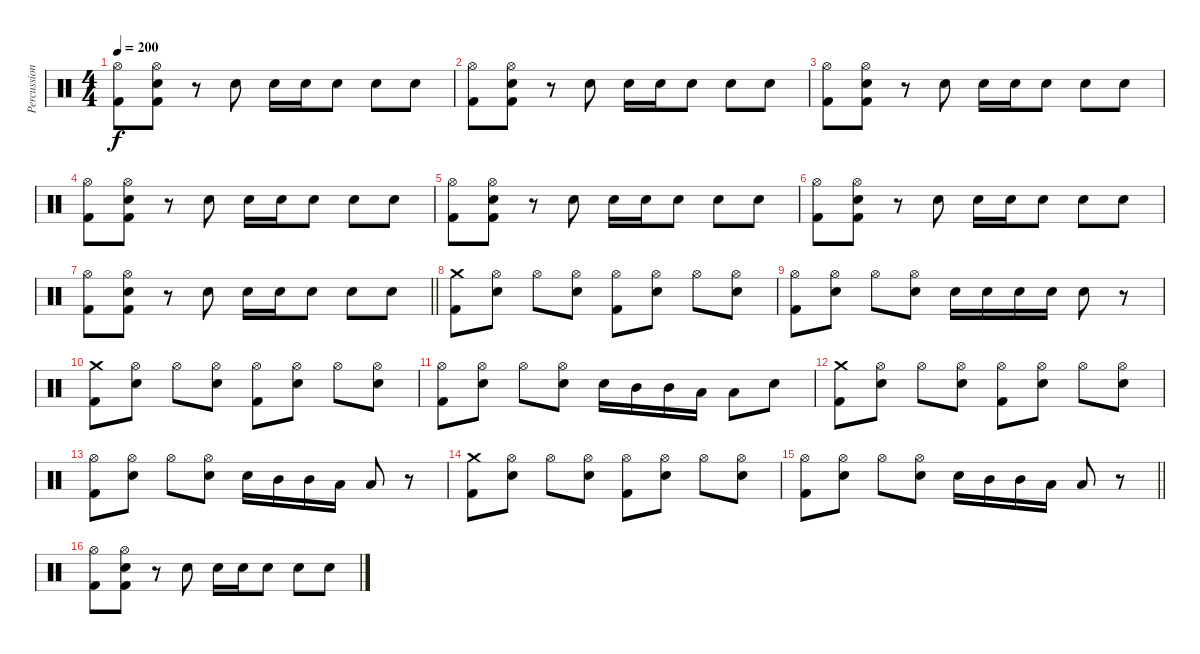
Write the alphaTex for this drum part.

\track ("Percussion" "Percussion") {instrument percussion}
\staff {score}
\articulation defaults
\ts (4 4)
\tempo 200
\clef neutral
\ks c
("Hi-Hat (open)" "Kick (hit) 2").8{dy f} ("Hi-Hat (open)" "Electric Snare (hit)" "Kick (hit) 2").8 r.8 "Electric Snare (hit)".8 "Electric Snare (hit)".16 "Electric Snare (hit)".16 "Electric Snare (hit)".8 "Electric Snare (hit)".8 "Electric Snare (hit)".8 |
("Hi-Hat (open)" "Kick (hit) 2").8 ("Hi-Hat (open)" "Electric Snare (hit)" "Kick (hit) 2").8 r.8 "Electric Snare (hit)".8 "Electric Snare (hit)".16 "Electric Snare (hit)".16 "Electric Snare (hit)".8 "Electric Snare (hit)".8 "Electric Snare (hit)".8 |
("Hi-Hat (open)" "Kick (hit) 2").8 ("Hi-Hat (open)" "Electric Snare (hit)" "Kick (hit) 2").8 r.8 "Electric Snare (hit)".8 "Electric Snare (hit)".16 "Electric Snare (hit)".16 "Electric Snare (hit)".8 "Electric Snare (hit)".8 "Electric Snare (hit)".8 |
("Hi-Hat (open)" "Kick (hit) 2").8 ("Hi-Hat (open)" "Electric Snare (hit)" "Kick (hit) 2").8 r.8 "Electric Snare (hit)".8 "Electric Snare (hit)".16 "Electric Snare (hit)".16 "Electric Snare (hit)".8 "Electric Snare (hit)".8 "Electric Snare (hit)".8 |
("Hi-Hat (open)" "Kick (hit) 2").8 ("Hi-Hat (open)" "Electric Snare (hit)" "Kick (hit) 2").8 r.8 "Electric Snare (hit)".8 "Electric Snare (hit)".16 "Electric Snare (hit)".16 "Electric Snare (hit)".8 "Electric Snare (hit)".8 "Electric Snare (hit)".8 |
("Hi-Hat (open)" "Kick (hit) 2").8 ("Hi-Hat (open)" "Electric Snare (hit)" "Kick (hit) 2").8 r.8 "Electric Snare (hit)".8 "Electric Snare (hit)".16 "Electric Snare (hit)".16 "Electric Snare (hit)".8 "Electric Snare (hit)".8 "Electric Snare (hit)".8 |
\barLineRight lightlight
("Hi-Hat (open)" "Kick (hit) 2").8 ("Hi-Hat (open)" "Electric Snare (hit)" "Kick (hit) 2").8 r.8 "Electric Snare (hit)".8 "Electric Snare (hit)".16 "Electric Snare (hit)".16 "Electric Snare (hit)".8 "Electric Snare (hit)".8 "Electric Snare (hit)".8 |
("Crash medium (hit)" "Kick (hit) 2").8 ("Hi-Hat (open)" "Electric Snare (hit)").8 "Hi-Hat (open)".8 ("Hi-Hat (open)" "Electric Snare (hit)").8 ("Hi-Hat (open)" "Kick (hit) 2").8 ("Hi-Hat (open)" "Electric Snare (hit)").8 "Hi-Hat (open)".8 ("Hi-Hat (open)" "Electric Snare (hit)").8 |
("Hi-Hat (open)" "Kick (hit) 2").8 ("Hi-Hat (open)" "Electric Snare (hit)").8 "Hi-Hat (open)".8 ("Hi-Hat (open)" "Electric Snare (hit)").8 "Electric Snare (hit)".16 "Electric Snare (hit)".16 "Electric Snare (hit)".16 "Electric Snare (hit)".16 "Electric Snare (hit)".8 r.8 |
("Crash medium (hit)" "Kick (hit) 2").8 ("Hi-Hat (open)" "Electric Snare (hit)").8 "Hi-Hat (open)".8 ("Hi-Hat (open)" "Electric Snare (hit)").8 ("Hi-Hat (open)" "Kick (hit) 2").8 ("Hi-Hat (open)" "Electric Snare (hit)").8 "Hi-Hat (open)".8 ("Hi-Hat (open)" "Electric Snare (hit)").8 |
("Hi-Hat (open)" "Kick (hit) 2").8 ("Hi-Hat (open)" "Electric Snare (hit)").8 "Hi-Hat (open)".8 ("Hi-Hat (open)" "Electric Snare (hit)").8 "Electric Snare (hit)".16 "Mid Tom (hit)".16 "Mid Tom (hit)".16 "Low Tom (hit)".16 "Low Tom (hit)".8 "Electric Snare (hit)".8 |
("Crash medium (hit)" "Kick (hit) 2").8 ("Hi-Hat (open)" "Electric Snare (hit)").8 "Hi-Hat (open)".8 ("Hi-Hat (open)" "Electric Snare (hit)").8 ("Hi-Hat (open)" "Kick (hit) 2").8 ("Hi-Hat (open)" "Electric Snare (hit)").8 "Hi-Hat (open)".8 ("Hi-Hat (open)" "Electric Snare (hit)").8 |
("Hi-Hat (open)" "Kick (hit) 2").8 ("Hi-Hat (open)" "Electric Snare (hit)").8 "Hi-Hat (open)".8 ("Hi-Hat (open)" "Electric Snare (hit)").8 "Electric Snare (hit)".16 "Mid Tom (hit)".16 "Mid Tom (hit)".16 "Low Tom (hit)".16 "Low Tom (hit)".8 r.8 |
("Crash medium (hit)" "Kick (hit) 2").8 ("Hi-Hat (open)" "Electric Snare (hit)").8 "Hi-Hat (open)".8 ("Hi-Hat (open)" "Electric Snare (hit)").8 ("Hi-Hat (open)" "Kick (hit) 2").8 ("Hi-Hat (open)" "Electric Snare (hit)").8 "Hi-Hat (open)".8 ("Hi-Hat (open)" "Electric Snare (hit)").8 |
\barLineRight lightlight
("Hi-Hat (open)" "Kick (hit) 2").8 ("Hi-Hat (open)" "Electric Snare (hit)").8 "Hi-Hat (open)".8 ("Hi-Hat (open)" "Electric Snare (hit)").8 "Electric Snare (hit)".16 "Mid Tom (hit)".16 "Mid Tom (hit)".16 "Low Tom (hit)".16 "Low Tom (hit)".8 r.8 |
("Hi-Hat (open)" "Kick (hit) 2").8 ("Hi-Hat (open)" "Electric Snare (hit)" "Kick (hit) 2").8 r.8 "Electric Snare (hit)".8 "Electric Snare (hit)".16 "Electric Snare (hit)".16 "Electric Snare (hit)".8 "Electric Snare (hit)".8 "Electric Snare (hit)".8
